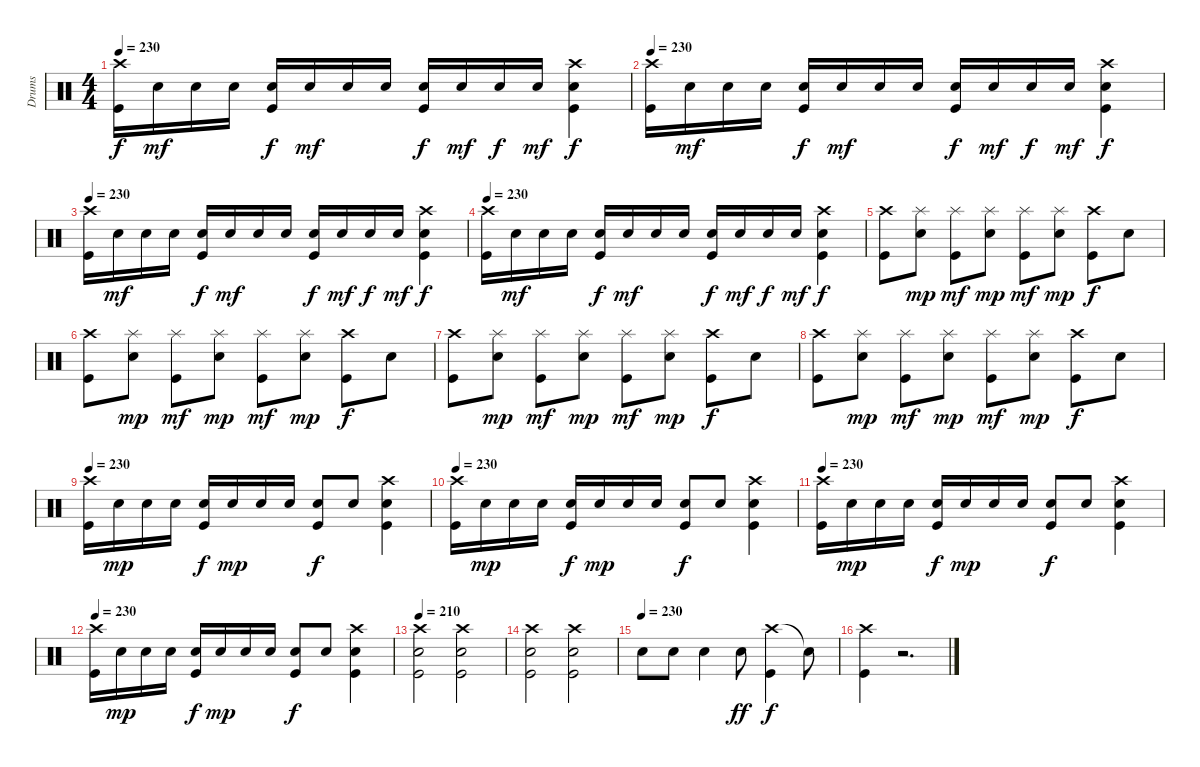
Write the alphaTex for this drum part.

\track ("Drums" "Drums") {instrument percussion}
\staff {score}
\articulation defaults
\ts (4 4)
\tempo 230
\clef neutral
\ks c
("Crash high (hit)" "Kick (hit)").16{dy f} "Electric Snare (hit)".16{dy mf} "Electric Snare (hit)".16 "Electric Snare (hit)".16 ("Electric Snare (hit)" "Kick (hit)").16{dy f} "Electric Snare (hit)".16{dy mf} "Electric Snare (hit)".16 "Electric Snare (hit)".16 ("Electric Snare (hit)" "Kick (hit)").16{dy f} "Electric Snare (hit)".16{dy mf} "Electric Snare (hit)".16{dy f} "Electric Snare (hit)".16{dy mf} ("Crash high (hit)" "Electric Snare (hit)" "Kick (hit)").4{dy f} |
\tempo 230
("Crash high (hit)" "Kick (hit)").16 "Electric Snare (hit)".16{dy mf} "Electric Snare (hit)".16 "Electric Snare (hit)".16 ("Electric Snare (hit)" "Kick (hit)").16{dy f} "Electric Snare (hit)".16{dy mf} "Electric Snare (hit)".16 "Electric Snare (hit)".16 ("Electric Snare (hit)" "Kick (hit)").16{dy f} "Electric Snare (hit)".16{dy mf} "Electric Snare (hit)".16{dy f} "Electric Snare (hit)".16{dy mf} ("Crash high (hit)" "Electric Snare (hit)" "Kick (hit)").4{dy f} |
\tempo 230
("Crash high (hit)" "Kick (hit)").16 "Electric Snare (hit)".16{dy mf} "Electric Snare (hit)".16 "Electric Snare (hit)".16 ("Electric Snare (hit)" "Kick (hit)").16{dy f} "Electric Snare (hit)".16{dy mf} "Electric Snare (hit)".16 "Electric Snare (hit)".16 ("Electric Snare (hit)" "Kick (hit)").16{dy f} "Electric Snare (hit)".16{dy mf} "Electric Snare (hit)".16{dy f} "Electric Snare (hit)".16{dy mf} ("Crash high (hit)" "Electric Snare (hit)" "Kick (hit)").4{dy f} |
\tempo 230
("Crash high (hit)" "Kick (hit)").16 "Electric Snare (hit)".16{dy mf} "Electric Snare (hit)".16 "Electric Snare (hit)".16 ("Electric Snare (hit)" "Kick (hit)").16{dy f} "Electric Snare (hit)".16{dy mf} "Electric Snare (hit)".16 "Electric Snare (hit)".16 ("Electric Snare (hit)" "Kick (hit)").16{dy f} "Electric Snare (hit)".16{dy mf} "Electric Snare (hit)".16{dy f} "Electric Snare (hit)".16{dy mf} ("Crash high (hit)" "Electric Snare (hit)" "Kick (hit)").4{dy f} |
("Crash high (hit)" "Kick (hit)").8 ("Splash (hit)" "Electric Snare (hit)").8{dy mp} ("Splash (hit)" "Kick (hit)").8{dy mf} ("Splash (hit)" "Electric Snare (hit)").8{dy mp} ("Splash (hit)" "Kick (hit)").8{dy mf} ("Splash (hit)" "Electric Snare (hit)").8{dy mp} ("Crash high (hit)" "Kick (hit)").8{dy f} "Electric Snare (hit)".8 |
("Crash high (hit)" "Kick (hit)").8 ("Splash (hit)" "Electric Snare (hit)").8{dy mp} ("Splash (hit)" "Kick (hit)").8{dy mf} ("Splash (hit)" "Electric Snare (hit)").8{dy mp} ("Splash (hit)" "Kick (hit)").8{dy mf} ("Splash (hit)" "Electric Snare (hit)").8{dy mp} ("Crash high (hit)" "Kick (hit)").8{dy f} "Electric Snare (hit)".8 |
("Crash high (hit)" "Kick (hit)").8 ("Splash (hit)" "Electric Snare (hit)").8{dy mp} ("Splash (hit)" "Kick (hit)").8{dy mf} ("Splash (hit)" "Electric Snare (hit)").8{dy mp} ("Splash (hit)" "Kick (hit)").8{dy mf} ("Splash (hit)" "Electric Snare (hit)").8{dy mp} ("Crash high (hit)" "Kick (hit)").8{dy f} "Electric Snare (hit)".8 |
("Crash high (hit)" "Kick (hit)").8 ("Splash (hit)" "Electric Snare (hit)").8{dy mp} ("Splash (hit)" "Kick (hit)").8{dy mf} ("Splash (hit)" "Electric Snare (hit)").8{dy mp} ("Splash (hit)" "Kick (hit)").8{dy mf} ("Splash (hit)" "Electric Snare (hit)").8{dy mp} ("Crash high (hit)" "Kick (hit)").8{dy f} "Electric Snare (hit)".8 |
\tempo 230
("Crash high (hit)" "Kick (hit)").16 "Electric Snare (hit)".16{dy mp} "Electric Snare (hit)".16 "Electric Snare (hit)".16 ("Electric Snare (hit)" "Kick (hit)").16{dy f} "Electric Snare (hit)".16{dy mp} "Electric Snare (hit)".16 "Electric Snare (hit)".16 ("Electric Snare (hit)" "Kick (hit)").8{dy f} "Electric Snare (hit)".8 ("Crash high (hit)" "Electric Snare (hit)" "Kick (hit)").4 |
\tempo 230
("Crash high (hit)" "Kick (hit)").16 "Electric Snare (hit)".16{dy mp} "Electric Snare (hit)".16 "Electric Snare (hit)".16 ("Electric Snare (hit)" "Kick (hit)").16{dy f} "Electric Snare (hit)".16{dy mp} "Electric Snare (hit)".16 "Electric Snare (hit)".16 ("Electric Snare (hit)" "Kick (hit)").8{dy f} "Electric Snare (hit)".8 ("Crash high (hit)" "Electric Snare (hit)" "Kick (hit)").4 |
\tempo 230
("Crash high (hit)" "Kick (hit)").16 "Electric Snare (hit)".16{dy mp} "Electric Snare (hit)".16 "Electric Snare (hit)".16 ("Electric Snare (hit)" "Kick (hit)").16{dy f} "Electric Snare (hit)".16{dy mp} "Electric Snare (hit)".16 "Electric Snare (hit)".16 ("Electric Snare (hit)" "Kick (hit)").8{dy f} "Electric Snare (hit)".8 ("Crash high (hit)" "Electric Snare (hit)" "Kick (hit)").4 |
\tempo 230
("Crash high (hit)" "Kick (hit)").16 "Electric Snare (hit)".16{dy mp} "Electric Snare (hit)".16 "Electric Snare (hit)".16 ("Electric Snare (hit)" "Kick (hit)").16{dy f} "Electric Snare (hit)".16{dy mp} "Electric Snare (hit)".16 "Electric Snare (hit)".16 ("Electric Snare (hit)" "Kick (hit)").8{dy f} "Electric Snare (hit)".8 ("Crash high (hit)" "Electric Snare (hit)" "Kick (hit)").4 |
\tempo 210
("Crash high (hit)" "Electric Snare (hit)" "Kick (hit)").2 ("Crash high (hit)" "Electric Snare (hit)" "Kick (hit)").2 |
("Crash high (hit)" "Electric Snare (hit)" "Kick (hit)").2 ("Crash high (hit)" "Electric Snare (hit)" "Kick (hit)").2 |
\tempo (230)
"Electric Snare (hit)".8 "Electric Snare (hit)".8 "Electric Snare (hit)".4 "Electric Snare (hit)".8{dy ff} ("Crash high (hit)" "Kick (hit)").4{dy f} "Snare (hit)"{t}.8 |
("Crash high (hit)" "Kick (hit)").4 r.2{d}
